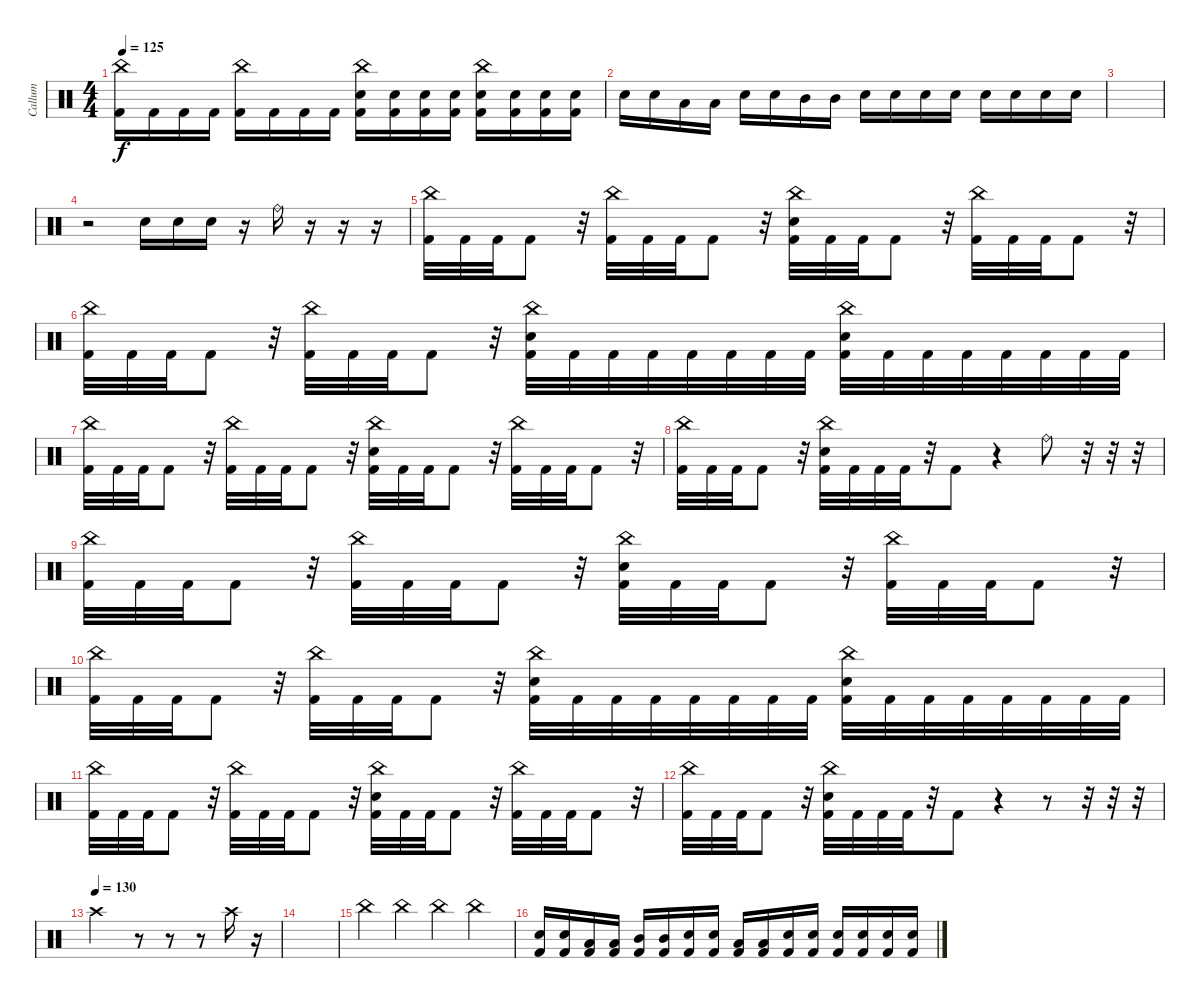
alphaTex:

\track ("Callum" "Callum") {instrument percussion}
\staff {score}
\articulation defaults
\ts (4 4)
\tempo 125
\clef neutral
\ks c
("China (hit)" "Kick (hit) 2").16{dy f} "Kick (hit) 2".16 "Kick (hit) 2".16 "Kick (hit) 2".16 ("China (hit)" "Kick (hit) 2").16 "Kick (hit) 2".16 "Kick (hit) 2".16 "Kick (hit) 2".16 ("China (hit)" "Electric Snare (hit)" "Kick (hit) 2").16 ("Electric Snare (hit)" "Kick (hit) 2").16 ("Electric Snare (hit)" "Kick (hit) 2").16 ("Electric Snare (hit)" "Kick (hit) 2").16 ("China (hit)" "Electric Snare (hit)" "Kick (hit) 2").16 ("Electric Snare (hit)" "Kick (hit) 2").16 ("Electric Snare (hit)" "Kick (hit) 2").16 ("Electric Snare (hit)" "Kick (hit) 2").16 |
"Electric Snare (hit)".16 "Electric Snare (hit)".16 "Low Tom (hit)".16 "Low Tom (hit)".16 "Electric Snare (hit)".16 "Electric Snare (hit)".16 "Mid Tom (hit)".16 "Mid Tom (hit)".16 "Electric Snare (hit)".16 "Electric Snare (hit)".16 "Electric Snare (hit)".16 "Electric Snare (hit)".16 "Electric Snare (hit)".16 "Electric Snare (hit)".16 "Electric Snare (hit)".16 "Electric Snare (hit)".16 |
|
r.2 "Electric Snare (hit)".16 "Electric Snare (hit)".16 "Electric Snare (hit)".16 r.16 "Ride (bell)".16 r.16 r.16 r.16 |
("China (hit)" "Kick (hit) 2").32 "Kick (hit) 2".32 "Kick (hit) 2".32 "Kick (hit) 2".8 r.32 ("China (hit)" "Kick (hit) 2").32 "Kick (hit) 2".32 "Kick (hit) 2".32 "Kick (hit) 2".8 r.32 ("China (hit)" "Electric Snare (hit)" "Kick (hit) 2").32 "Kick (hit) 2".32 "Kick (hit) 2".32 "Kick (hit) 2".8 r.32 ("China (hit)" "Kick (hit) 2").32 "Kick (hit) 2".32 "Kick (hit) 2".32 "Kick (hit) 2".8 r.32 |
("China (hit)" "Kick (hit) 2").32 "Kick (hit) 2".32 "Kick (hit) 2".32 "Kick (hit) 2".8 r.32 ("China (hit)" "Kick (hit) 2").32 "Kick (hit) 2".32 "Kick (hit) 2".32 "Kick (hit) 2".8 r.32 ("China (hit)" "Electric Snare (hit)" "Kick (hit) 2").32 "Kick (hit) 2".32 "Kick (hit) 2".32 "Kick (hit) 2".32 "Kick (hit) 2".32 "Kick (hit) 2".32 "Kick (hit) 2".32 "Kick (hit) 2".32 ("China (hit)" "Electric Snare (hit)" "Kick (hit) 2").32 "Kick (hit) 2".32 "Kick (hit) 2".32 "Kick (hit) 2".32 "Kick (hit) 2".32 "Kick (hit) 2".32 "Kick (hit) 2".32 "Kick (hit) 2".32 |
("China (hit)" "Kick (hit) 2").32 "Kick (hit) 2".32 "Kick (hit) 2".32 "Kick (hit) 2".8 r.32 ("China (hit)" "Kick (hit) 2").32 "Kick (hit) 2".32 "Kick (hit) 2".32 "Kick (hit) 2".8 r.32 ("China (hit)" "Electric Snare (hit)" "Kick (hit) 2").32 "Kick (hit) 2".32 "Kick (hit) 2".32 "Kick (hit) 2".8 r.32 ("China (hit)" "Kick (hit) 2").32 "Kick (hit) 2".32 "Kick (hit) 2".32 "Kick (hit) 2".8 r.32 |
("China (hit)" "Kick (hit) 2").32 "Kick (hit) 2".32 "Kick (hit) 2".32 "Kick (hit) 2".8 r.32 ("China (hit)" "Electric Snare (hit)" "Kick (hit) 2").32 "Kick (hit) 2".32 "Kick (hit) 2".32 "Kick (hit) 2".32 r.32 "Kick (hit) 2".8 r.4 "Ride (bell)".8 r.32 r.32 r.32 |
("China (hit)" "Kick (hit) 2").32 "Kick (hit) 2".32 "Kick (hit) 2".32 "Kick (hit) 2".8 r.32 ("China (hit)" "Kick (hit) 2").32 "Kick (hit) 2".32 "Kick (hit) 2".32 "Kick (hit) 2".8 r.32 ("China (hit)" "Electric Snare (hit)" "Kick (hit) 2").32 "Kick (hit) 2".32 "Kick (hit) 2".32 "Kick (hit) 2".8 r.32 ("China (hit)" "Kick (hit) 2").32 "Kick (hit) 2".32 "Kick (hit) 2".32 "Kick (hit) 2".8 r.32 |
("China (hit)" "Kick (hit) 2").32 "Kick (hit) 2".32 "Kick (hit) 2".32 "Kick (hit) 2".8 r.32 ("China (hit)" "Kick (hit) 2").32 "Kick (hit) 2".32 "Kick (hit) 2".32 "Kick (hit) 2".8 r.32 ("China (hit)" "Electric Snare (hit)" "Kick (hit) 2").32 "Kick (hit) 2".32 "Kick (hit) 2".32 "Kick (hit) 2".32 "Kick (hit) 2".32 "Kick (hit) 2".32 "Kick (hit) 2".32 "Kick (hit) 2".32 ("China (hit)" "Electric Snare (hit)" "Kick (hit) 2").32 "Kick (hit) 2".32 "Kick (hit) 2".32 "Kick (hit) 2".32 "Kick (hit) 2".32 "Kick (hit) 2".32 "Kick (hit) 2".32 "Kick (hit) 2".32 |
("China (hit)" "Kick (hit) 2").32 "Kick (hit) 2".32 "Kick (hit) 2".32 "Kick (hit) 2".8 r.32 ("China (hit)" "Kick (hit) 2").32 "Kick (hit) 2".32 "Kick (hit) 2".32 "Kick (hit) 2".8 r.32 ("China (hit)" "Electric Snare (hit)" "Kick (hit) 2").32 "Kick (hit) 2".32 "Kick (hit) 2".32 "Kick (hit) 2".8 r.32 ("China (hit)" "Kick (hit) 2").32 "Kick (hit) 2".32 "Kick (hit) 2".32 "Kick (hit) 2".8 r.32 |
("China (hit)" "Kick (hit) 2").32 "Kick (hit) 2".32 "Kick (hit) 2".32 "Kick (hit) 2".8 r.32 ("China (hit)" "Electric Snare (hit)" "Kick (hit) 2").32 "Kick (hit) 2".32 "Kick (hit) 2".32 "Kick (hit) 2".32 r.32 "Kick (hit) 2".8 r.4 r.8 r.32 r.32 r.32 |
\tempo (130)
"Crash high (hit)".2 r.8 r.8 r.8 "Crash high (hit)".16 r.16 |
|
"China (hit)".4 "China (hit)".4 "China (hit)".4 "China (hit)".4 |
("Electric Snare (hit)" "Kick (hit) 2").16 ("Electric Snare (hit)" "Kick (hit) 2").16 ("Low Tom (hit)" "Kick (hit) 2").16 ("Low Tom (hit)" "Kick (hit) 2").16 ("Mid Tom (hit)" "Kick (hit) 2").16 ("Mid Tom (hit)" "Kick (hit) 2").16 ("Electric Snare (hit)" "Kick (hit) 2").16 ("Electric Snare (hit)" "Kick (hit) 2").16 ("Low Tom (hit)" "Kick (hit) 2").16 ("Low Tom (hit)" "Kick (hit) 2").16 ("Electric Snare (hit)" "Kick (hit) 2").16 ("Electric Snare (hit)" "Kick (hit) 2").16 ("Electric Snare (hit)" "Kick (hit) 2").16 ("Electric Snare (hit)" "Kick (hit) 2").16 ("Electric Snare (hit)" "Kick (hit) 2").16 ("Electric Snare (hit)" "Kick (hit) 2").16
